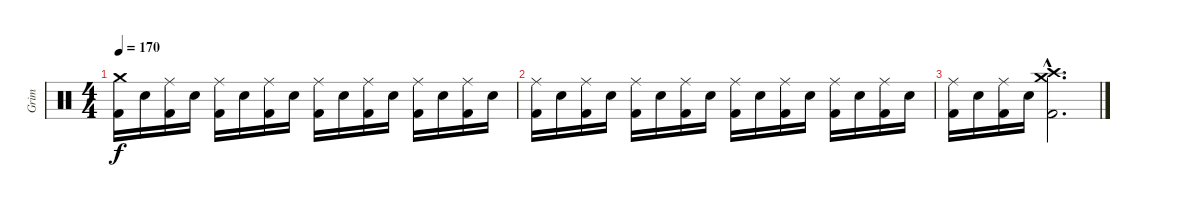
\track ("Grim" "Grim") {instrument percussion}
\staff {score}
\articulation defaults
\ts (4 4)
\tempo 170
\clef neutral
\ks c
("Kick (hit) 2" "Crash medium (hit)").16{dy f} "Electric Snare (hit)".16 ("Kick (hit) 2" "Ride (middle)").16 "Electric Snare (hit)".16 ("Kick (hit) 2" "Ride (middle)").16 "Electric Snare (hit)".16 ("Kick (hit) 2" "Ride (middle)").16 "Electric Snare (hit)".16 ("Kick (hit) 2" "Ride (middle)").16 "Electric Snare (hit)".16 ("Kick (hit) 2" "Ride (middle)").16 "Electric Snare (hit)".16 ("Kick (hit) 2" "Ride (middle)").16 "Electric Snare (hit)".16 ("Kick (hit) 2" "Ride (middle)").16 "Electric Snare (hit)".16 |
("Kick (hit) 2" "Ride (middle)").16 "Electric Snare (hit)".16 ("Kick (hit) 2" "Ride (middle)").16 "Electric Snare (hit)".16 ("Kick (hit) 2" "Ride (middle)").16 "Electric Snare (hit)".16 ("Kick (hit) 2" "Ride (middle)").16 "Electric Snare (hit)".16 ("Kick (hit) 2" "Ride (middle)").16 "Electric Snare (hit)".16 ("Kick (hit) 2" "Ride (middle)").16 "Electric Snare (hit)".16 ("Kick (hit) 2" "Ride (middle)").16 "Electric Snare (hit)".16 ("Kick (hit) 2" "Ride (middle)").16 "Electric Snare (hit)".16 |
("Kick (hit) 2" "Ride (middle)").16 "Electric Snare (hit)".16 ("Kick (hit) 2" "Ride (middle)").16 "Electric Snare (hit)".16 ("Kick (hit) 2"{hac} "Crash high (hit)"{hac} "Crash medium (hit)"{hac}).2{d}
